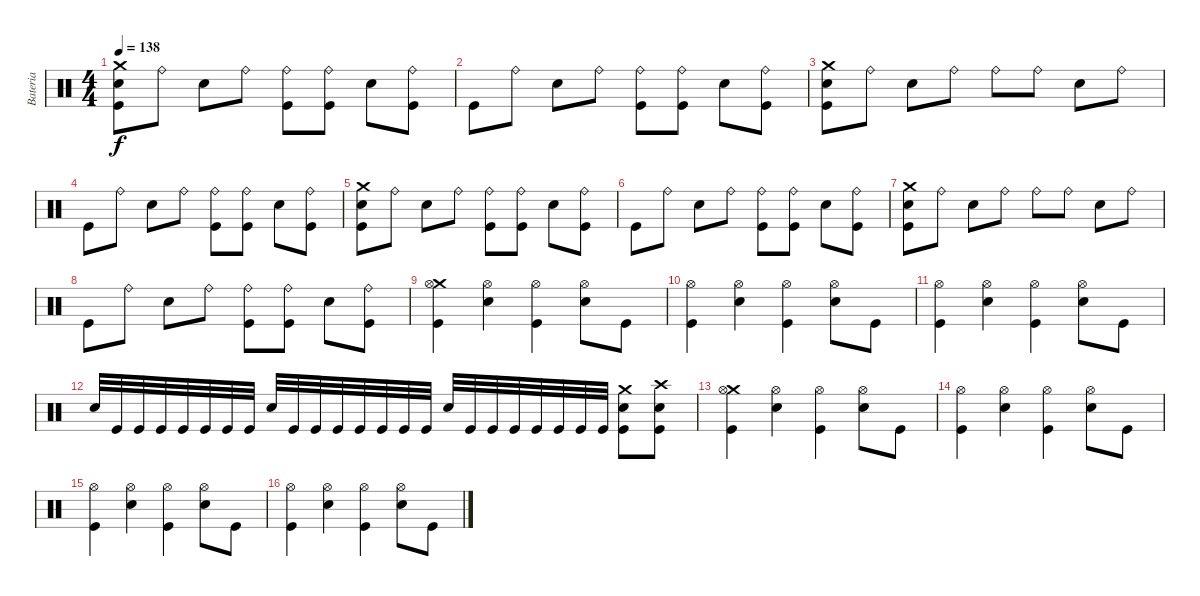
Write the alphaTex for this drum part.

\track ("Bateria" "Bateria") {instrument percussion}
\staff {score}
\articulation defaults
\ts (4 4)
\tempo 138
\clef neutral
\ks c
("Crash medium (hit)" "Kick (hit)" "Snare (hit) 2").8{dy f} "Ride (bell)".8 "Snare (hit) 2".8 "Ride (bell)".8 ("Kick (hit)" "Ride (bell)").8 ("Kick (hit)" "Ride (bell)").8 "Snare (hit) 2".8 ("Kick (hit)" "Ride (bell)").8 |
"Kick (hit)".8 "Ride (bell)".8 "Snare (hit) 2".8 "Ride (bell)".8 ("Kick (hit)" "Ride (bell)").8 ("Kick (hit)" "Ride (bell)").8 "Snare (hit) 2".8 ("Kick (hit)" "Ride (bell)").8 |
("Crash medium (hit)" "Kick (hit)" "Snare (hit) 2").8 "Ride (bell)".8 "Snare (hit) 2".8 "Ride (bell)".8 "Ride (bell)".8 "Ride (bell)".8 "Snare (hit) 2".8 "Ride (bell)".8 |
"Kick (hit)".8 "Ride (bell)".8 "Snare (hit) 2".8 "Ride (bell)".8 ("Kick (hit)" "Ride (bell)").8 ("Kick (hit)" "Ride (bell)").8 "Snare (hit) 2".8 ("Kick (hit)" "Ride (bell)").8 |
("Crash medium (hit)" "Kick (hit)" "Snare (hit) 2").8 "Ride (bell)".8 "Snare (hit) 2".8 "Ride (bell)".8 ("Kick (hit)" "Ride (bell)").8 ("Kick (hit)" "Ride (bell)").8 "Snare (hit) 2".8 ("Kick (hit)" "Ride (bell)").8 |
"Kick (hit)".8 "Ride (bell)".8 "Snare (hit) 2".8 "Ride (bell)".8 ("Kick (hit)" "Ride (bell)").8 ("Kick (hit)" "Ride (bell)").8 "Snare (hit) 2".8 ("Kick (hit)" "Ride (bell)").8 |
("Crash medium (hit)" "Kick (hit)" "Snare (hit) 2").8 "Ride (bell)".8 "Snare (hit) 2".8 "Ride (bell)".8 "Ride (bell)".8 "Ride (bell)".8 "Snare (hit) 2".8 "Ride (bell)".8 |
"Kick (hit)".8 "Ride (bell)".8 "Snare (hit) 2".8 "Ride (bell)".8 ("Kick (hit)" "Ride (bell)").8 ("Kick (hit)" "Ride (bell)").8 "Snare (hit) 2".8 ("Kick (hit)" "Ride (bell)").8 |
("Crash medium (hit)" "Hi-Hat (open)" "Kick (hit)").4 ("Snare (hit) 2" "Hi-Hat (open)").4 ("Hi-Hat (open)" "Kick (hit)").4 ("Snare (hit) 2" "Hi-Hat (open)").8 "Kick (hit)".8 |
("Hi-Hat (open)" "Kick (hit)").4 ("Snare (hit) 2" "Hi-Hat (open)").4 ("Hi-Hat (open)" "Kick (hit)").4 ("Snare (hit) 2" "Hi-Hat (open)").8 "Kick (hit)".8 |
("Hi-Hat (open)" "Kick (hit)").4 ("Snare (hit) 2" "Hi-Hat (open)").4 ("Hi-Hat (open)" "Kick (hit)").4 ("Snare (hit) 2" "Hi-Hat (open)").8 "Kick (hit)".8 |
"Snare (hit) 2".32 "Kick (hit)".32 "Kick (hit)".32 "Kick (hit)".32 "Kick (hit)".32 "Kick (hit)".32 "Kick (hit)".32 "Kick (hit)".32 "Snare (hit) 2".32 "Kick (hit)".32 "Kick (hit)".32 "Kick (hit)".32 "Kick (hit)".32 "Kick (hit)".32 "Kick (hit)".32 "Kick (hit)".32 "Snare (hit) 2".32 "Kick (hit)".32 "Kick (hit)".32 "Kick (hit)".32 "Kick (hit)".32 "Kick (hit)".32 "Kick (hit)".32 "Kick (hit)".32 ("Crash medium (hit)" "Snare (hit) 2" "Kick (hit)").8 ("Crash high (hit)" "Snare (hit) 2" "Kick (hit)").8 |
("Crash medium (hit)" "Hi-Hat (open)" "Kick (hit)").4 ("Snare (hit) 2" "Hi-Hat (open)").4 ("Hi-Hat (open)" "Kick (hit)").4 ("Snare (hit) 2" "Hi-Hat (open)").8 "Kick (hit)".8 |
("Hi-Hat (open)" "Kick (hit)").4 ("Snare (hit) 2" "Hi-Hat (open)").4 ("Hi-Hat (open)" "Kick (hit)").4 ("Snare (hit) 2" "Hi-Hat (open)").8 "Kick (hit)".8 |
("Hi-Hat (open)" "Kick (hit)").4 ("Snare (hit) 2" "Hi-Hat (open)").4 ("Hi-Hat (open)" "Kick (hit)").4 ("Snare (hit) 2" "Hi-Hat (open)").8 "Kick (hit)".8 |
("Hi-Hat (open)" "Kick (hit)").4 ("Snare (hit) 2" "Hi-Hat (open)").4 ("Hi-Hat (open)" "Kick (hit)").4 ("Snare (hit) 2" "Hi-Hat (open)").8 "Kick (hit)".8
